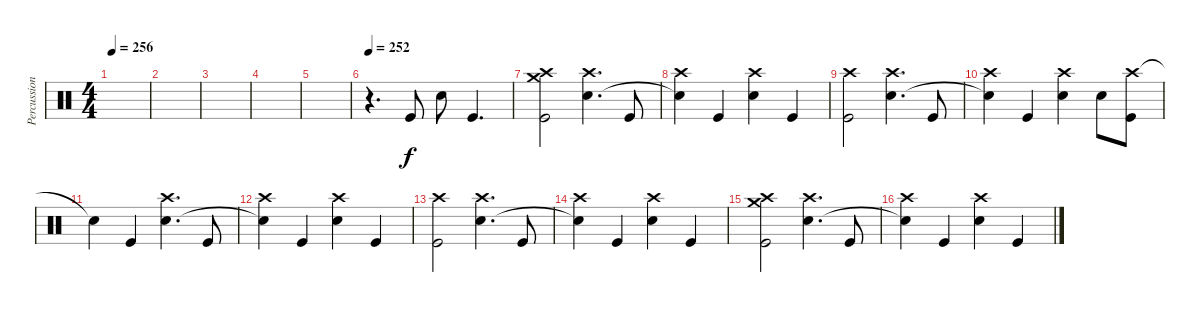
\track ("Percussion" "Percussion") {instrument percussion}
\staff {score}
\articulation defaults
\ts (4 4)
\tempo 256
\clef neutral
\ks c
|
|
|
|
|
\tempo 252
r.4{d} "Kick (hit)".8 "Electric Snare (hit)".8 "Kick (hit)".4{d} |
("Crash high (hit)" "Crash medium (hit)" "Kick (hit)").2 ("Crash high (hit)" "Electric Snare (hit)").4{d} "Kick (hit)".8 |
("Crash high (hit)" "Snare (hit)"{t}).4 "Kick (hit)".4 ("Crash high (hit)" "Electric Snare (hit)").4 "Kick (hit)".4 |
("Crash high (hit)" "Kick (hit)").2 ("Crash high (hit)" "Electric Snare (hit)").4{d} "Kick (hit)".8 |
("Crash high (hit)" "Snare (hit)"{t}).4 "Kick (hit)".4 ("Crash high (hit)" "Electric Snare (hit)").4 "Electric Snare (hit)".8 ("Crash high (hit)" "Kick (hit)").8 |
"Snare (hit)"{t}.4 "Kick (hit)".4 ("Crash high (hit)" "Electric Snare (hit)").4{d} "Kick (hit)".8 |
("Crash high (hit)" "Snare (hit)"{t}).4 "Kick (hit)".4 ("Crash high (hit)" "Electric Snare (hit)").4 "Kick (hit)".4 |
("Crash high (hit)" "Kick (hit)").2 ("Crash high (hit)" "Electric Snare (hit)").4{d} "Kick (hit)".8 |
("Crash high (hit)" "Snare (hit)"{t}).4 "Kick (hit)".4 ("Crash high (hit)" "Electric Snare (hit)").4 "Kick (hit)".4 |
("Crash high (hit)" "Crash medium (hit)" "Kick (hit)").2 ("Crash high (hit)" "Electric Snare (hit)").4{d} "Kick (hit)".8 |
("Crash high (hit)" "Snare (hit)"{t}).4 "Kick (hit)".4 ("Crash high (hit)" "Electric Snare (hit)").4 "Kick (hit)".4
